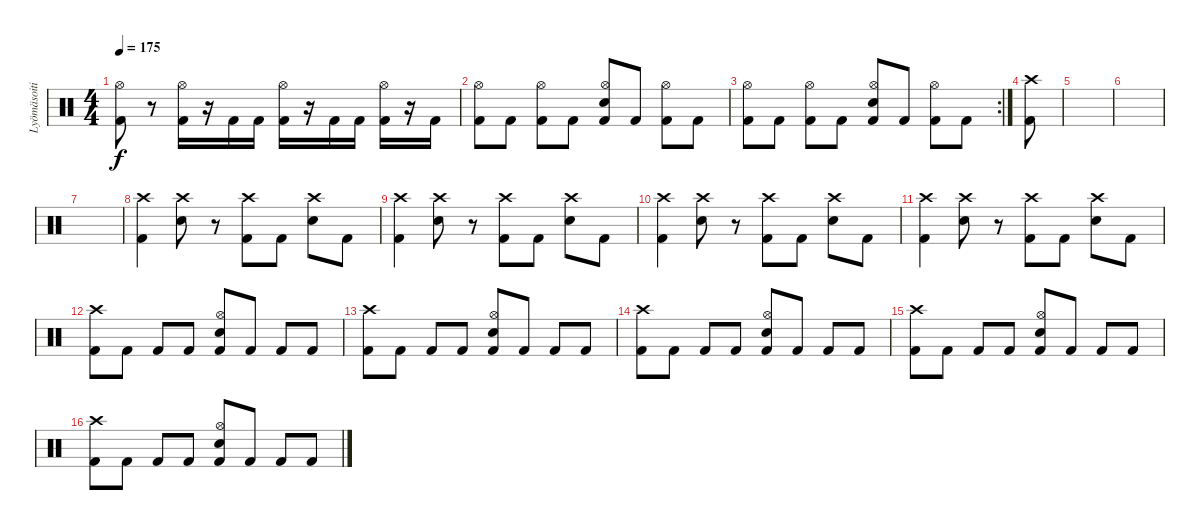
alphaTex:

\track ("Lyömäsoitin" "Lyömäsoiti") {instrument percussion}
\staff {score}
\articulation defaults
\ts (4 4)
\tempo 175
\clef neutral
\ks c
("Kick (hit) 2" "Hi-Hat (open)").8{dy f} r.8 ("Kick (hit) 2" "Hi-Hat (open)").16 r.16 "Kick (hit) 2".16 "Kick (hit) 2".16 ("Kick (hit) 2" "Hi-Hat (open)").16 r.16 "Kick (hit) 2".16 "Kick (hit) 2".16 ("Kick (hit) 2" "Hi-Hat (open)").16 r.16 "Kick (hit) 2".16 |
("Kick (hit) 2" "Hi-Hat (open)").8 "Kick (hit) 2".8 ("Kick (hit) 2" "Hi-Hat (open)").8 "Kick (hit) 2".8 ("Kick (hit) 2" "Electric Snare (hit)" "Hi-Hat (open)").8 "Kick (hit) 2".8 ("Kick (hit) 2" "Hi-Hat (open)").8 "Kick (hit) 2".8 |
\rc 2
("Kick (hit) 2" "Hi-Hat (open)").8 "Kick (hit) 2".8 ("Kick (hit) 2" "Hi-Hat (open)").8 "Kick (hit) 2".8 ("Kick (hit) 2" "Electric Snare (hit)" "Hi-Hat (open)").8 "Kick (hit) 2".8 ("Kick (hit) 2" "Hi-Hat (open)").8 "Kick (hit) 2".8 |
("Kick (hit) 2" "Crash high (hit)").8 |
|
|
|
("Kick (hit) 2" "Crash high (hit)").4 ("Electric Snare (hit)" "Crash high (hit)").8 r.8 ("Kick (hit) 2" "Crash high (hit)").8 "Kick (hit) 2".8 ("Electric Snare (hit)" "Crash high (hit)").8 "Kick (hit) 2".8 |
("Kick (hit) 2" "Crash high (hit)").4 ("Electric Snare (hit)" "Crash high (hit)").8 r.8 ("Kick (hit) 2" "Crash high (hit)").8 "Kick (hit) 2".8 ("Electric Snare (hit)" "Crash high (hit)").8 "Kick (hit) 2".8 |
("Kick (hit) 2" "Crash high (hit)").4 ("Electric Snare (hit)" "Crash high (hit)").8 r.8 ("Kick (hit) 2" "Crash high (hit)").8 "Kick (hit) 2".8 ("Electric Snare (hit)" "Crash high (hit)").8 "Kick (hit) 2".8 |
("Kick (hit) 2" "Crash high (hit)").4 ("Electric Snare (hit)" "Crash high (hit)").8 r.8 ("Kick (hit) 2" "Crash high (hit)").8 "Kick (hit) 2".8 ("Electric Snare (hit)" "Crash high (hit)").8 "Kick (hit) 2".8 |
("Kick (hit) 2" "Crash high (hit)").8 "Kick (hit) 2".8 "Kick (hit) 2".8 "Kick (hit) 2".8 ("Kick (hit) 2" "Electric Snare (hit)" "Hi-Hat (open)").8 "Kick (hit) 2".8 "Kick (hit) 2".8 "Kick (hit) 2".8 |
("Kick (hit) 2" "Crash high (hit)").8 "Kick (hit) 2".8 "Kick (hit) 2".8 "Kick (hit) 2".8 ("Kick (hit) 2" "Electric Snare (hit)" "Hi-Hat (open)").8 "Kick (hit) 2".8 "Kick (hit) 2".8 "Kick (hit) 2".8 |
("Kick (hit) 2" "Crash high (hit)").8 "Kick (hit) 2".8 "Kick (hit) 2".8 "Kick (hit) 2".8 ("Kick (hit) 2" "Electric Snare (hit)" "Hi-Hat (open)").8 "Kick (hit) 2".8 "Kick (hit) 2".8 "Kick (hit) 2".8 |
("Kick (hit) 2" "Crash high (hit)").8 "Kick (hit) 2".8 "Kick (hit) 2".8 "Kick (hit) 2".8 ("Kick (hit) 2" "Electric Snare (hit)" "Hi-Hat (open)").8 "Kick (hit) 2".8 "Kick (hit) 2".8 "Kick (hit) 2".8 |
("Kick (hit) 2" "Crash high (hit)").8 "Kick (hit) 2".8 "Kick (hit) 2".8 "Kick (hit) 2".8 ("Kick (hit) 2" "Electric Snare (hit)" "Hi-Hat (open)").8 "Kick (hit) 2".8 "Kick (hit) 2".8 "Kick (hit) 2".8
